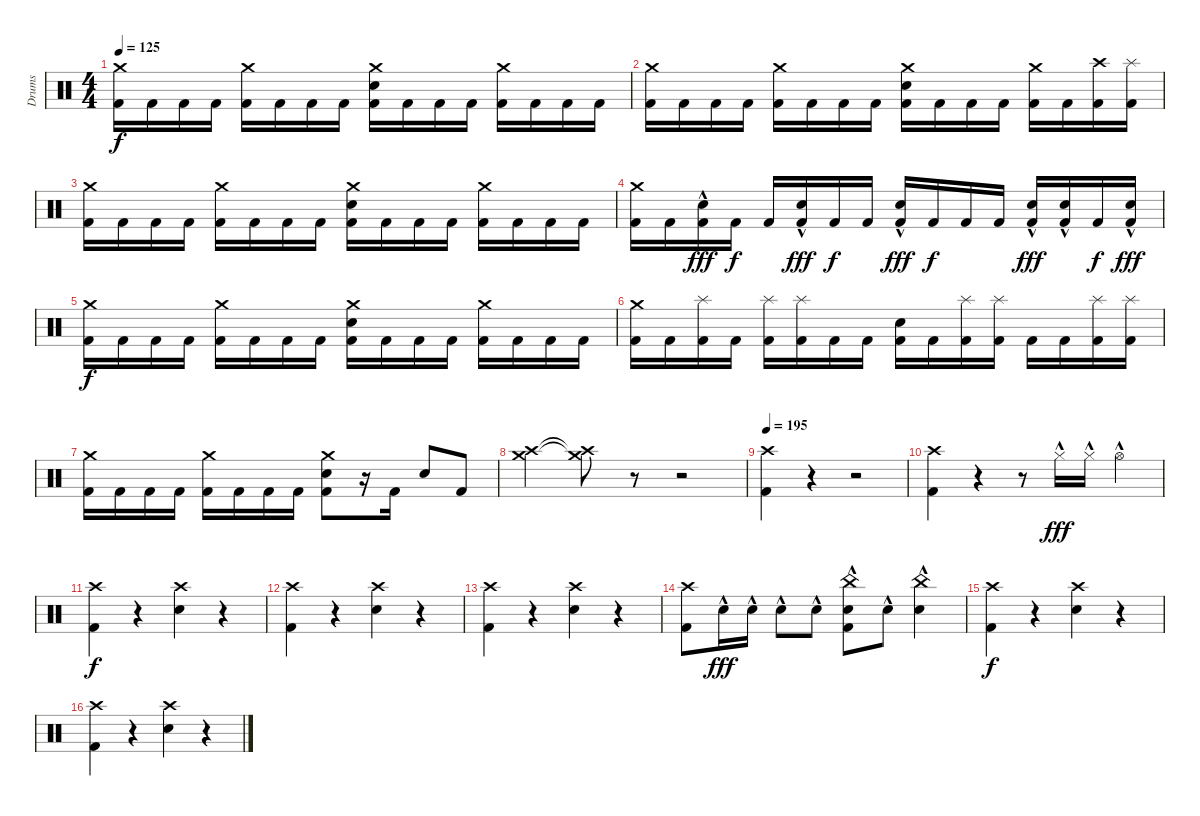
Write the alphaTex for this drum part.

\track ("Drums" "Drums") {instrument percussion}
\staff {score}
\articulation defaults
\ts (4 4)
\tempo 125
\clef neutral
\ks c
("Crash medium (hit)" "Kick (hit) 2").16{dy f} "Kick (hit) 2".16 "Kick (hit) 2".16 "Kick (hit) 2".16 ("Crash medium (hit)" "Kick (hit) 2").16 "Kick (hit) 2".16 "Kick (hit) 2".16 "Kick (hit) 2".16 ("Crash medium (hit)" "Kick (hit) 2" "Electric Snare (hit)").16 "Kick (hit) 2".16 "Kick (hit) 2".16 "Kick (hit) 2".16 ("Crash medium (hit)" "Kick (hit) 2").16 "Kick (hit) 2".16 "Kick (hit) 2".16 "Kick (hit) 2".16 |
("Crash medium (hit)" "Kick (hit) 2").16 "Kick (hit) 2".16 "Kick (hit) 2".16 "Kick (hit) 2".16 ("Crash medium (hit)" "Kick (hit) 2").16 "Kick (hit) 2".16 "Kick (hit) 2".16 "Kick (hit) 2".16 ("Crash medium (hit)" "Kick (hit) 2" "Electric Snare (hit)").16 "Kick (hit) 2".16 "Kick (hit) 2".16 "Kick (hit) 2".16 ("Crash medium (hit)" "Kick (hit) 2").16 "Kick (hit) 2".16 ("Crash high (hit)" "Kick (hit) 2").16 ("Splash (hit)" "Kick (hit) 2").16 |
("Crash medium (hit)" "Kick (hit) 2").16 "Kick (hit) 2".16 "Kick (hit) 2".16 "Kick (hit) 2".16 ("Crash medium (hit)" "Kick (hit) 2").16 "Kick (hit) 2".16 "Kick (hit) 2".16 "Kick (hit) 2".16 ("Crash medium (hit)" "Kick (hit) 2" "Electric Snare (hit)").16 "Kick (hit) 2".16 "Kick (hit) 2".16 "Kick (hit) 2".16 ("Crash medium (hit)" "Kick (hit) 2").16 "Kick (hit) 2".16 "Kick (hit) 2".16 "Kick (hit) 2".16 |
("Crash medium (hit)" "Kick (hit) 2").16 "Kick (hit) 2".16 ("Electric Snare (hit)"{hac} "Kick (hit) 2").16{dy fff} "Kick (hit) 2".16{dy f} "Kick (hit) 2".16 ("Electric Snare (hit)"{hac} "Kick (hit) 2").16{dy fff} "Kick (hit) 2".16{dy f} "Kick (hit) 2".16 ("Electric Snare (hit)"{hac} "Kick (hit) 2").16{dy fff} "Kick (hit) 2".16{dy f} "Kick (hit) 2".16 "Kick (hit) 2".16 ("Electric Snare (hit)"{hac} "Kick (hit) 2").16{dy fff} ("Electric Snare (hit)"{hac} "Kick (hit) 2").16 "Kick (hit) 2".16{dy f} ("Electric Snare (hit)"{hac} "Kick (hit) 2").16{dy fff} |
("Crash medium (hit)" "Kick (hit) 2").16{dy f} "Kick (hit) 2".16 "Kick (hit) 2".16 "Kick (hit) 2".16 ("Crash medium (hit)" "Kick (hit) 2").16 "Kick (hit) 2".16 "Kick (hit) 2".16 "Kick (hit) 2".16 ("Crash medium (hit)" "Kick (hit) 2" "Electric Snare (hit)").16 "Kick (hit) 2".16 "Kick (hit) 2".16 "Kick (hit) 2".16 ("Crash medium (hit)" "Kick (hit) 2").16 "Kick (hit) 2".16 "Kick (hit) 2".16 "Kick (hit) 2".16 |
("Crash medium (hit)" "Kick (hit) 2").16 "Kick (hit) 2".16 ("Splash (hit)" "Kick (hit) 2").16 "Kick (hit) 2".16 ("Splash (hit)" "Kick (hit) 2").16 ("Splash (hit)" "Kick (hit) 2").16 "Kick (hit) 2".16 "Kick (hit) 2".16 ("Kick (hit) 2" "Electric Snare (hit)").16 "Kick (hit) 2".16 ("Splash (hit)" "Kick (hit) 2").16 ("Splash (hit)" "Kick (hit) 2").16 "Kick (hit) 2".16 "Kick (hit) 2".16 ("Splash (hit)" "Kick (hit) 2").16 ("Splash (hit)" "Kick (hit) 2").16 |
("Crash medium (hit)" "Kick (hit) 2").16 "Kick (hit) 2".16 "Kick (hit) 2".16 "Kick (hit) 2".16 ("Crash medium (hit)" "Kick (hit) 2").16 "Kick (hit) 2".16 "Kick (hit) 2".16 "Kick (hit) 2".16 ("Crash medium (hit)" "Kick (hit) 2" "Electric Snare (hit)").8 r.16 "Kick (hit) 2".16 "Electric Snare (hit)".8 "Kick (hit) 2".8 |
("Crash high (hit)" "Crash medium (hit)").4 ("Crash high (hit)"{t} "Crash medium (hit)"{t}).8{volume 0} r.8 r.2 |
\tempo 195
("Crash high (hit)" "Kick (hit) 2").4{volume 16} r.4{volume 0} r.2 |
("Crash high (hit)" "Kick (hit) 2").4{volume 16} r.4{volume 0} r.8 "Hi-Hat (closed)"{hac}.16{dy fff volume 16} "Hi-Hat (closed)"{hac}.16 "Hi-Hat (open)"{hac}.4 |
("Crash high (hit)" "Kick (hit) 2").4{dy f} r.4 ("Crash high (hit)" "Electric Snare (hit)").4 r.4 |
("Crash high (hit)" "Kick (hit) 2").4 r.4 ("Crash high (hit)" "Electric Snare (hit)").4 r.4 |
("Crash high (hit)" "Kick (hit) 2").4 r.4 ("Crash high (hit)" "Electric Snare (hit)").4 r.4 |
("Crash high (hit)" "Kick (hit) 2").8 "Electric Snare (hit)"{hac}.16{dy fff} "Electric Snare (hit)"{hac}.16 "Electric Snare (hit)"{hac}.8 "Electric Snare (hit)"{hac}.8 ("Electric Snare (hit)"{hac} "China (hit)" "Kick (hit) 2").8 "Electric Snare (hit)"{hac}.8 ("Electric Snare (hit)"{hac} "China (hit)").4 |
("Crash high (hit)" "Kick (hit) 2").4{dy f} r.4 ("Crash high (hit)" "Electric Snare (hit)").4 r.4 |
("Crash high (hit)" "Kick (hit) 2").4 r.4 ("Crash high (hit)" "Electric Snare (hit)").4 r.4
